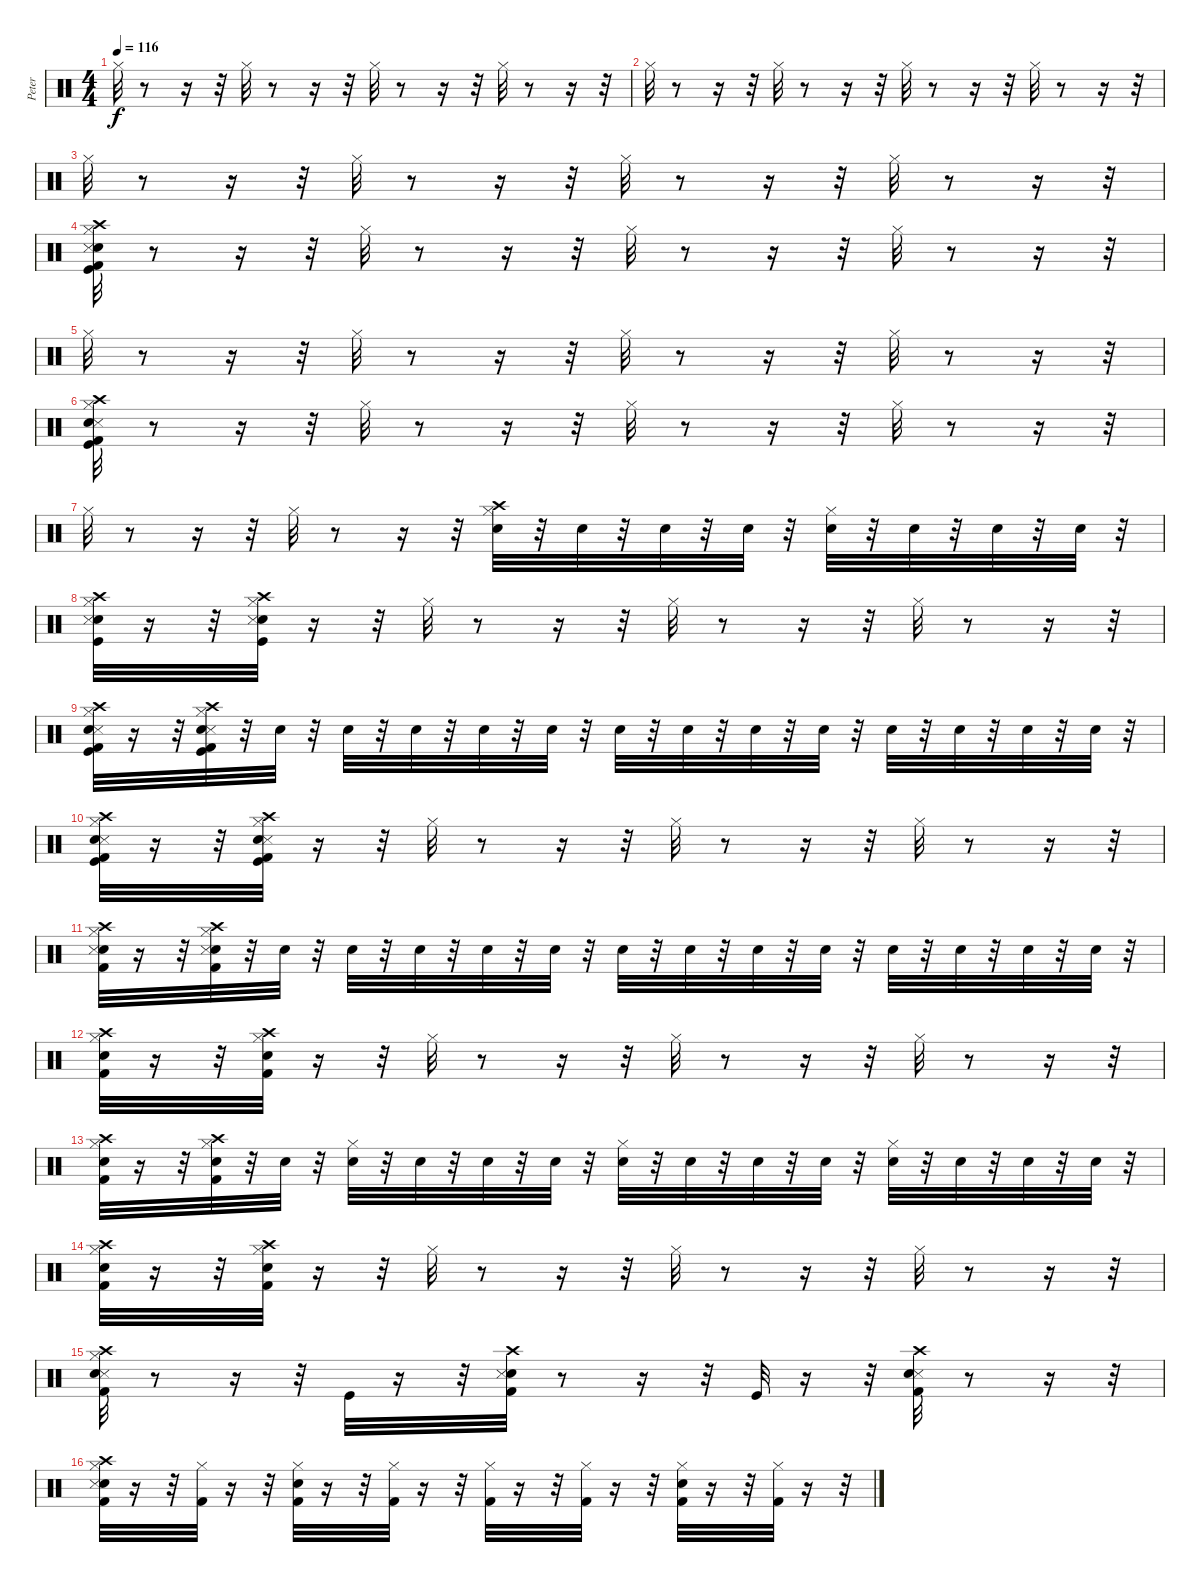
\track ("Peter" "Peter") {instrument percussion}
\staff {score}
\articulation defaults
\ts (4 4)
\tempo 116
\clef neutral
\ks c "Hi-Hat (closed)".32{dy f}
r.8 r.16 r.32 "Hi-Hat (closed)".32 r.8 r.16 r.32 "Hi-Hat (closed)".32 r.8 r.16 r.32 "Hi-Hat (closed)".32 r.8 r.16 r.32 |
"Hi-Hat (closed)".32 r.8 r.16 r.32 "Hi-Hat (closed)".32 r.8 r.16 r.32 "Hi-Hat (closed)".32 r.8 r.16 r.32 "Hi-Hat (closed)".32 r.8 r.16 r.32 |
"Hi-Hat (closed)".32 r.8 r.16 r.32 "Hi-Hat (closed)".32 r.8 r.16 r.32 "Hi-Hat (closed)".32 r.8 r.16 r.32 "Hi-Hat (closed)".32 r.8 r.16 r.32 |
("Kick (hit) 2" "Snare (hit) 2" "Snare (side stick) 3" "Kick (hit)" "Crash high (hit)" "Hi-Hat (closed)").32 r.8 r.16 r.32 "Hi-Hat (closed)".32 r.8 r.16 r.32 "Hi-Hat (closed)".32 r.8 r.16 r.32 "Hi-Hat (closed)".32 r.8 r.16 r.32 |
"Hi-Hat (closed)".32 r.8 r.16 r.32 "Hi-Hat (closed)".32 r.8 r.16 r.32 "Hi-Hat (closed)".32 r.8 r.16 r.32 "Hi-Hat (closed)".32 r.8 r.16 r.32 |
("Kick (hit)" "Kick (hit) 2" "Snare (side stick) 3" "Snare (hit) 2" "Crash high (hit)" "Hi-Hat (closed)").32 r.8 r.16 r.32 "Hi-Hat (closed)".32 r.8 r.16 r.32 "Hi-Hat (closed)".32 r.8 r.16 r.32 "Hi-Hat (closed)".32 r.8 r.16 r.32 |
"Hi-Hat (closed)".32 r.8 r.16 r.32 "Hi-Hat (closed)".32 r.8 r.16 r.32 ("Crash high (hit)" "Snare (hit) 2" "Hi-Hat (closed)").32 r.32 "Snare (hit) 2".32 r.32 "Snare (hit) 2".32 r.32 "Snare (hit) 2".32 r.32 ("Snare (hit) 2" "Hi-Hat (closed)").32 r.32 "Snare (hit) 2".32 r.32 "Snare (hit) 2".32 r.32 "Snare (hit) 2".32 r.32 |
("Snare (hit) 2" "Snare (side stick) 3" "Kick (hit)" "Crash high (hit)" "Hi-Hat (closed)").32 r.16 r.32 ("Snare (hit) 2" "Snare (side stick) 3" "Kick (hit)" "Hi-Hat (closed)" "Crash high (hit)").32 r.16 r.32 "Hi-Hat (closed)".32 r.8 r.16 r.32 "Hi-Hat (closed)".32 r.8 r.16 r.32 "Hi-Hat (closed)".32 r.8 r.16 r.32 |
("Kick (hit)" "Snare (side stick) 3" "Kick (hit) 2" "Snare (hit) 2" "Crash high (hit)" "Hi-Hat (closed)").32 r.16 r.32 ("Kick (hit)" "Snare (side stick) 3" "Kick (hit) 2" "Snare (hit) 2" "Crash high (hit)" "Hi-Hat (closed)").32 r.32 "Snare (hit) 2".32 r.32 "Snare (hit) 2".32 r.32 "Snare (hit) 2".32 r.32 "Snare (hit) 2".32 r.32 "Snare (hit) 2".32 r.32 "Snare (hit) 2".32 r.32 "Snare (hit) 2".32 r.32 "Snare (hit) 2".32 r.32 "Snare (hit) 2".32 r.32 "Snare (hit) 2".32 r.32 "Snare (hit) 2".32 r.32 "Snare (hit) 2".32 r.32 "Snare (hit) 2".32 r.32 |
("Snare (side stick) 3" "Kick (hit) 2" "Kick (hit)" "Snare (hit) 2" "Crash high (hit)" "Hi-Hat (closed)").32 r.16 r.32 ("Snare (side stick) 3" "Kick (hit) 2" "Kick (hit)" "Snare (hit) 2" "Crash high (hit)" "Hi-Hat (closed)").32 r.16 r.32 "Hi-Hat (closed)".32 r.8 r.16 r.32 "Hi-Hat (closed)".32 r.8 r.16 r.32 "Hi-Hat (closed)".32 r.8 r.16 r.32 |
("Snare (hit) 2" "Snare (side stick) 3" "Kick (hit) 2" "Crash high (hit)" "Hi-Hat (closed)").32 r.16 r.32 ("Snare (hit) 2" "Snare (side stick) 3" "Kick (hit) 2" "Crash high (hit)" "Hi-Hat (closed)").32 r.32 "Snare (hit) 2".32 r.32 "Snare (hit) 2".32 r.32 "Snare (hit) 2".32 r.32 "Snare (hit) 2".32 r.32 "Snare (hit) 2".32 r.32 "Snare (hit) 2".32 r.32 "Snare (hit) 2".32 r.32 "Snare (hit) 2".32 r.32 "Snare (hit) 2".32 r.32 "Snare (hit) 2".32 r.32 "Snare (hit) 2".32 r.32 "Snare (hit) 2".32 r.32 "Snare (hit) 2".32 r.32 |
("Crash high (hit)" "Hi-Hat (closed)" "Snare (hit) 2" "Kick (hit) 2").32 r.16 r.32 ("Crash high (hit)" "Hi-Hat (closed)" "Snare (hit) 2" "Kick (hit) 2").32 r.16 r.32 "Hi-Hat (closed)".32 r.8 r.16 r.32 "Hi-Hat (closed)".32 r.8 r.16 r.32 "Hi-Hat (closed)".32 r.8 r.16 r.32 |
("Crash high (hit)" "Snare (hit) 2" "Kick (hit) 2" "Hi-Hat (closed)").32 r.16 r.32 ("Crash high (hit)" "Snare (hit) 2" "Kick (hit) 2" "Hi-Hat (closed)").32 r.32 "Snare (hit) 2".32 r.32 ("Snare (hit) 2" "Hi-Hat (closed)").32 r.32 "Snare (hit) 2".32 r.32 "Snare (hit) 2".32 r.32 "Snare (hit) 2".32 r.32 ("Hi-Hat (closed)" "Snare (hit) 2").32 r.32 "Snare (hit) 2".32 r.32 "Snare (hit) 2".32 r.32 "Snare (hit) 2".32 r.32 ("Hi-Hat (closed)" "Snare (hit) 2").32 r.32 "Snare (hit) 2".32 r.32 "Snare (hit) 2".32 r.32 "Snare (hit) 2".32 r.32 |
("Crash high (hit)" "Kick (hit) 2" "Snare (hit) 2" "Hi-Hat (closed)").32 r.16 r.32 ("Crash high (hit)" "Hi-Hat (closed)" "Kick (hit) 2" "Snare (hit) 2").32 r.16 r.32 "Hi-Hat (closed)".32 r.8 r.16 r.32 "Hi-Hat (closed)".32 r.8 r.16 r.32 "Hi-Hat (closed)".32 r.8 r.16 r.32 |
("Kick (hit) 2" "Snare (side stick) 3" "Snare (hit) 2" "Hi-Hat (closed)" "Crash high (hit)").32 r.8 r.16 r.32 "Kick (hit)".32 r.16 r.32 ("Snare (hit) 2" "Snare (side stick) 3" "Kick (hit) 2" "Crash high (hit)").32 r.8 r.16 r.32 "Kick (hit)".32 r.16 r.32 ("Kick (hit) 2" "Snare (side stick) 3" "Snare (hit) 2" "Crash high (hit)").32 r.8 r.16 r.32 |
("Hi-Hat (closed)" "Snare (hit) 2" "Snare (side stick) 3" "Kick (hit) 2" "Crash high (hit)").32 r.16 r.32 ("Hi-Hat (closed)" "Kick (hit) 2").32 r.16 r.32 ("Snare (hit) 2" "Hi-Hat (closed)" "Kick (hit) 2").32 r.16 r.32 ("Hi-Hat (closed)" "Kick (hit) 2").32 r.16 r.32 ("Hi-Hat (closed)" "Kick (hit) 2").32 r.16 r.32 ("Hi-Hat (closed)" "Kick (hit) 2").32 r.16 r.32 ("Snare (hit) 2" "Hi-Hat (closed)" "Kick (hit) 2").32 r.16 r.32 ("Hi-Hat (closed)" "Kick (hit) 2").32 r.16 r.32
